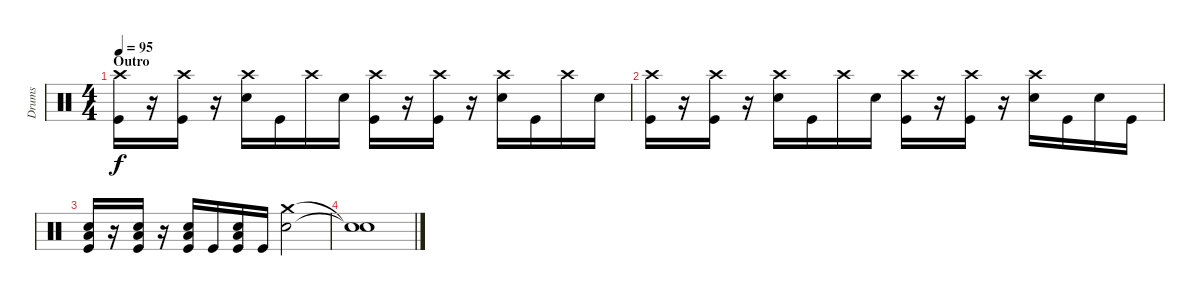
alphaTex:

\track ("Drums" "Drums") {instrument percussion}
\staff {score}
\articulation defaults
\ts (4 4)
\section ("" "Outro")
\tempo 95
\clef neutral
\ks c
("Crash high (hit)" "Kick (hit)").16{dy f} r.16 ("Crash high (hit)" "Kick (hit)").16 r.16 ("Crash high (hit)" "Electric Snare (hit)").16 "Kick (hit)".16 "Crash high (hit)".16 "Electric Snare (hit)".16 ("Crash high (hit)" "Kick (hit)").16 r.16 ("Crash high (hit)" "Kick (hit)").16 r.16 ("Crash high (hit)" "Electric Snare (hit)").16 "Kick (hit)".16 "Crash high (hit)".16 "Electric Snare (hit)".16 |
("Crash high (hit)" "Kick (hit)").16 r.16 ("Crash high (hit)" "Kick (hit)").16 r.16 ("Crash high (hit)" "Electric Snare (hit)").16 "Kick (hit)".16 "Crash high (hit)".16 "Electric Snare (hit)".16 ("Crash high (hit)" "Kick (hit)").16 r.16 ("Crash high (hit)" "Kick (hit)").16 r.16 ("Crash high (hit)" "Electric Snare (hit)").16 "Kick (hit)".16 "Electric Snare (hit)".16 "Kick (hit)".16 |
("Electric Snare (hit)" "Kick (hit)" "Low Floor Tom (hit)").16 r.16 ("Electric Snare (hit)" "Kick (hit)" "Low Floor Tom (hit)").16 r.16 ("Electric Snare (hit)" "Kick (hit)" "Low Floor Tom (hit)").16 "Kick (hit)".16 ("Electric Snare (hit)" "Kick (hit)" "Low Floor Tom (hit)").16 "Kick (hit)".16 ("Crash medium (hit)" "Electric Snare (hit)").2 |
("Snare (hit)"{t} "Snare (hit)"{t}).1
